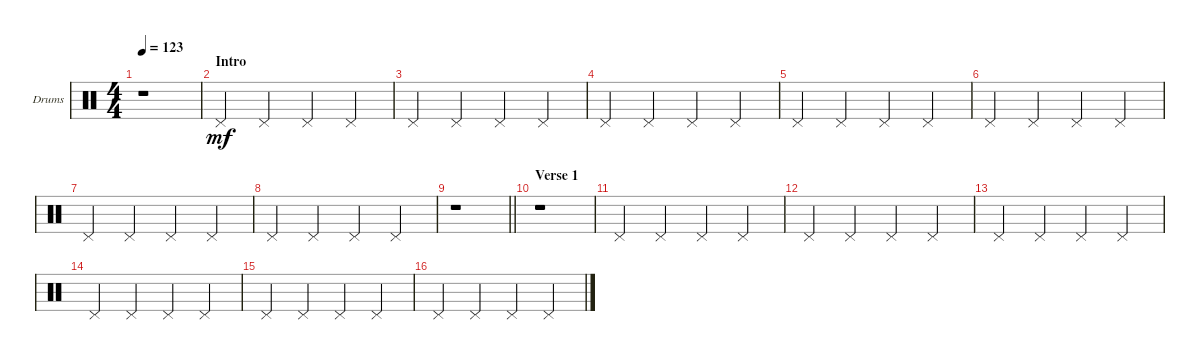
\defaultSystemsLayout 4
\bracketExtendMode groupsimilarinstruments
\firstSystemTrackNameOrientation horizontal
\otherSystemsTrackNameOrientation horizontal
\track ("Pedal Hithat" "Drums") {instrument percussion}
\staff {score}
\articulation defaults
\ts (4 4)
\tempo 123
\clef neutral
\scale
0.474178
\ks c
r.1{dy mf} |
\section ("" "Intro")
\scale
0.262911 "Pedal Hi-Hat (hit)".4 "Pedal Hi-Hat (hit)".4 "Pedal Hi-Hat (hit)".4 "Pedal Hi-Hat (hit)".4 |
\scale
0.262911 "Pedal Hi-Hat (hit)".4 "Pedal Hi-Hat (hit)".4 "Pedal Hi-Hat (hit)".4 "Pedal Hi-Hat (hit)".4 |
\scale
0.333333 "Pedal Hi-Hat (hit)".4 "Pedal Hi-Hat (hit)".4 "Pedal Hi-Hat (hit)".4 "Pedal Hi-Hat (hit)".4 |
\scale
0.333333 "Pedal Hi-Hat (hit)".4 "Pedal Hi-Hat (hit)".4 "Pedal Hi-Hat (hit)".4 "Pedal Hi-Hat (hit)".4 |
\scale
0.333333 "Pedal Hi-Hat (hit)".4 "Pedal Hi-Hat (hit)".4 "Pedal Hi-Hat (hit)".4 "Pedal Hi-Hat (hit)".4 |
\scale
0.333333 "Pedal Hi-Hat (hit)".4 "Pedal Hi-Hat (hit)".4 "Pedal Hi-Hat (hit)".4 "Pedal Hi-Hat (hit)".4 |
\scale
0.333333 "Pedal Hi-Hat (hit)".4 "Pedal Hi-Hat (hit)".4 "Pedal Hi-Hat (hit)".4 "Pedal Hi-Hat (hit)".4 |
\scale
0.333333
\barLineRight lightlight
r.1 |
\section ("" "Verse 1")
\scale
0.333333 r.1 |
\scale
0.333333 "Pedal Hi-Hat (hit)".4 "Pedal Hi-Hat (hit)".4 "Pedal Hi-Hat (hit)".4 "Pedal Hi-Hat (hit)".4 |
\scale
0.333333 "Pedal Hi-Hat (hit)".4 "Pedal Hi-Hat (hit)".4 "Pedal Hi-Hat (hit)".4 "Pedal Hi-Hat (hit)".4 |
\scale
0.333333 "Pedal Hi-Hat (hit)".4 "Pedal Hi-Hat (hit)".4 "Pedal Hi-Hat (hit)".4 "Pedal Hi-Hat (hit)".4 |
\scale
0.333333 "Pedal Hi-Hat (hit)".4 "Pedal Hi-Hat (hit)".4 "Pedal Hi-Hat (hit)".4 "Pedal Hi-Hat (hit)".4 |
\scale
0.333333 "Pedal Hi-Hat (hit)".4 "Pedal Hi-Hat (hit)".4 "Pedal Hi-Hat (hit)".4 "Pedal Hi-Hat (hit)".4 |
\scale
0.333333 "Pedal Hi-Hat (hit)".4 "Pedal Hi-Hat (hit)".4 "Pedal Hi-Hat (hit)".4 "Pedal Hi-Hat (hit)".4
